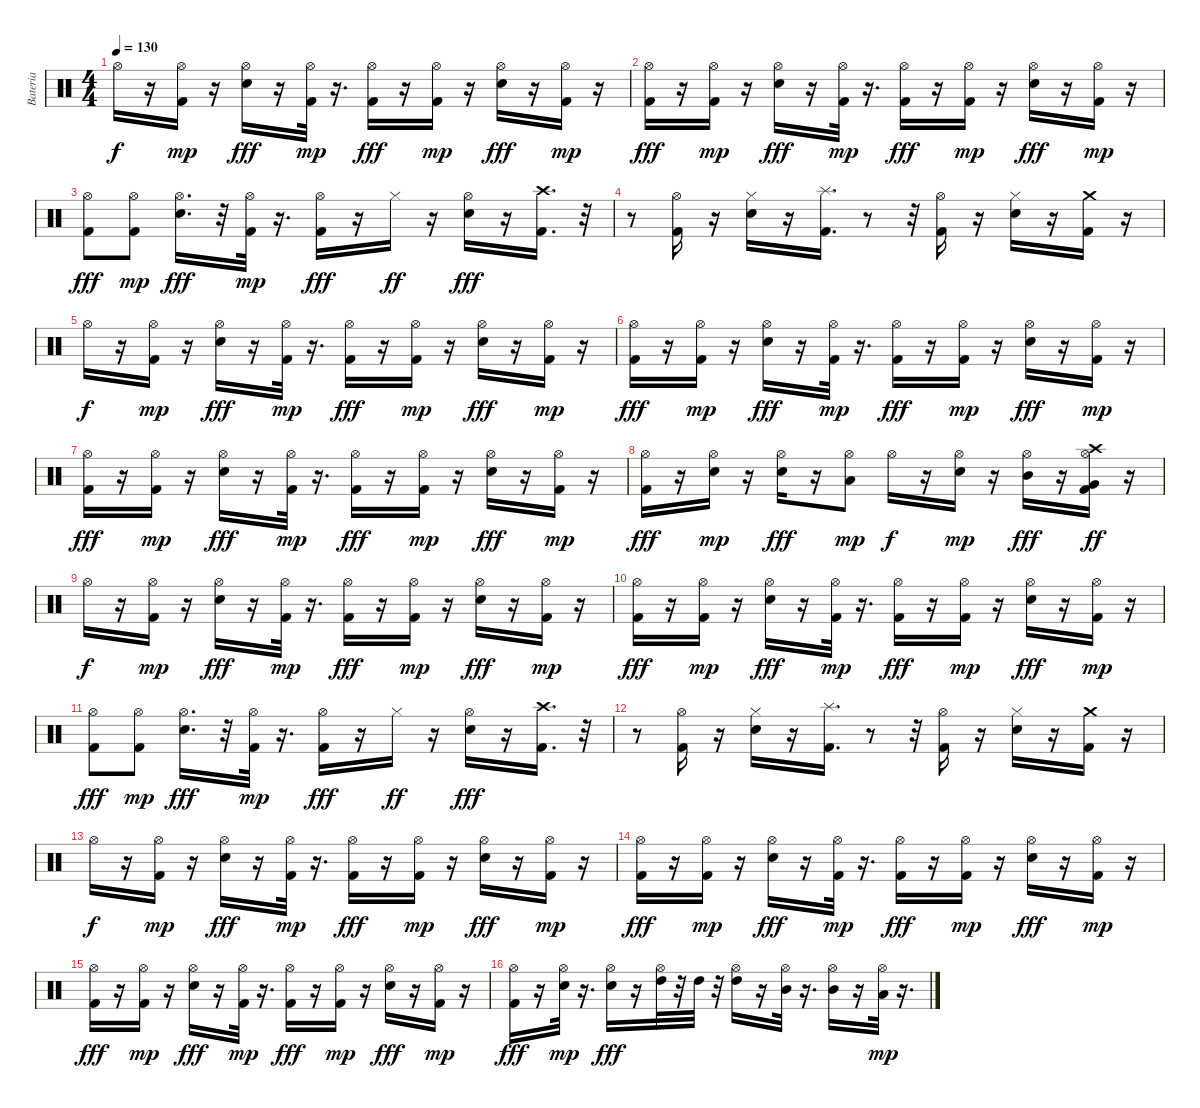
\track ("Bateria" "Bateria") {instrument percussion}
\staff {score}
\articulation defaults
\ts (4 4)
\tempo 130
\clef neutral
\ks c "Hi-Hat (open)".16{dy f}
r.16 ("Kick (hit) 2" "Hi-Hat (open)").16{dy mp} r.16 ("Electric Snare (hit)" "Hi-Hat (open)").16{dy fff} r.16 ("Kick (hit) 2" "Hi-Hat (open)").32{dy mp} r.16{d} ("Kick (hit) 2" "Hi-Hat (open)").16{dy fff} r.16 ("Kick (hit) 2" "Hi-Hat (open)").16{dy mp} r.16 ("Electric Snare (hit)" "Hi-Hat (open)").16{dy fff} r.16 ("Kick (hit) 2" "Hi-Hat (open)").16{dy mp} r.16 |
("Kick (hit) 2" "Hi-Hat (open)").16{dy fff} r.16 ("Kick (hit) 2" "Hi-Hat (open)").16{dy mp} r.16 ("Electric Snare (hit)" "Hi-Hat (open)").16{dy fff} r.16 ("Kick (hit) 2" "Hi-Hat (open)").32{dy mp} r.16{d} ("Kick (hit) 2" "Hi-Hat (open)").16{dy fff} r.16 ("Kick (hit) 2" "Hi-Hat (open)").16{dy mp} r.16 ("Electric Snare (hit)" "Hi-Hat (open)").16{dy fff} r.16 ("Kick (hit) 2" "Hi-Hat (open)").16{dy mp} r.16 |
("Kick (hit) 2" "Hi-Hat (open)").8{dy fff} ("Kick (hit) 2" "Hi-Hat (open)").8{dy mp} ("Electric Snare (hit)" "Hi-Hat (open)").16{d dy fff} r.32 ("Kick (hit) 2" "Hi-Hat (open)").32{dy mp} r.16{d} ("Kick (hit) 2" "Hi-Hat (open)").16{dy fff} r.16 "Hi-Hat (closed)".16{dy ff} r.16 ("Electric Snare (hit)" "Hi-Hat (open)").16{dy fff} r.16 ("Kick (hit) 2" "Crash high (hit)").16{d} r.32 |
r.8 ("Kick (hit) 2" "Hi-Hat (open)").16 r.16 ("Electric Snare (hit)" "Hi-Hat (closed)").16 r.16 ("Kick (hit) 2" "Splash (hit)").16{d} r.8 r.32 ("Kick (hit) 2" "Hi-Hat (open)").16 r.16 ("Electric Snare (hit)" "Hi-Hat (closed)").16 r.16 ("Kick (hit) 2" "Crash medium (hit)").16 r.16 |
"Hi-Hat (open)".16{dy f} r.16 ("Kick (hit) 2" "Hi-Hat (open)").16{dy mp} r.16 ("Electric Snare (hit)" "Hi-Hat (open)").16{dy fff} r.16 ("Kick (hit) 2" "Hi-Hat (open)").32{dy mp} r.16{d} ("Kick (hit) 2" "Hi-Hat (open)").16{dy fff} r.16 ("Kick (hit) 2" "Hi-Hat (open)").16{dy mp} r.16 ("Electric Snare (hit)" "Hi-Hat (open)").16{dy fff} r.16 ("Kick (hit) 2" "Hi-Hat (open)").16{dy mp} r.16 |
("Kick (hit) 2" "Hi-Hat (open)").16{dy fff} r.16 ("Kick (hit) 2" "Hi-Hat (open)").16{dy mp} r.16 ("Electric Snare (hit)" "Hi-Hat (open)").16{dy fff} r.16 ("Kick (hit) 2" "Hi-Hat (open)").32{dy mp} r.16{d} ("Kick (hit) 2" "Hi-Hat (open)").16{dy fff} r.16 ("Kick (hit) 2" "Hi-Hat (open)").16{dy mp} r.16 ("Electric Snare (hit)" "Hi-Hat (open)").16{dy fff} r.16 ("Kick (hit) 2" "Hi-Hat (open)").16{dy mp} r.16 |
("Kick (hit) 2" "Hi-Hat (open)").16{dy fff} r.16 ("Kick (hit) 2" "Hi-Hat (open)").16{dy mp} r.16 ("Electric Snare (hit)" "Hi-Hat (open)").16{dy fff} r.16 ("Kick (hit) 2" "Hi-Hat (open)").32{dy mp} r.16{d} ("Kick (hit) 2" "Hi-Hat (open)").16{dy fff} r.16 ("Kick (hit) 2" "Hi-Hat (open)").16{dy mp} r.16 ("Electric Snare (hit)" "Hi-Hat (open)").16{dy fff} r.16 ("Kick (hit) 2" "Hi-Hat (open)").16{dy mp} r.16 |
("Kick (hit) 2" "Hi-Hat (open)").16{dy fff} r.16 ("Electric Snare (hit)" "Hi-Hat (open)").16{dy mp} r.16 ("Electric Snare (hit)" "Hi-Hat (open)").16{dy fff} r.16 ("Low Tom (hit)" "Hi-Hat (open)").8{dy mp} "Hi-Hat (open)".16{dy f} r.16 ("Electric Snare (hit)" "Hi-Hat (open)").16{dy mp} r.16 ("Hi-Hat (open)" "Mid Tom (hit)").16{dy fff} r.16 ("Kick (hit) 2" "Very Low Tom (hit)" "Hi-Hat (open)" "Crash high (hit)").16{dy ff} r.16 |
"Hi-Hat (open)".16{dy f} r.16 ("Kick (hit) 2" "Hi-Hat (open)").16{dy mp} r.16 ("Electric Snare (hit)" "Hi-Hat (open)").16{dy fff} r.16 ("Kick (hit) 2" "Hi-Hat (open)").32{dy mp} r.16{d} ("Kick (hit) 2" "Hi-Hat (open)").16{dy fff} r.16 ("Kick (hit) 2" "Hi-Hat (open)").16{dy mp} r.16 ("Electric Snare (hit)" "Hi-Hat (open)").16{dy fff} r.16 ("Kick (hit) 2" "Hi-Hat (open)").16{dy mp} r.16 |
("Kick (hit) 2" "Hi-Hat (open)").16{dy fff} r.16 ("Kick (hit) 2" "Hi-Hat (open)").16{dy mp} r.16 ("Electric Snare (hit)" "Hi-Hat (open)").16{dy fff} r.16 ("Kick (hit) 2" "Hi-Hat (open)").32{dy mp} r.16{d} ("Kick (hit) 2" "Hi-Hat (open)").16{dy fff} r.16 ("Kick (hit) 2" "Hi-Hat (open)").16{dy mp} r.16 ("Electric Snare (hit)" "Hi-Hat (open)").16{dy fff} r.16 ("Kick (hit) 2" "Hi-Hat (open)").16{dy mp} r.16 |
("Kick (hit) 2" "Hi-Hat (open)").8{dy fff} ("Kick (hit) 2" "Hi-Hat (open)").8{dy mp} ("Electric Snare (hit)" "Hi-Hat (open)").16{d dy fff} r.32 ("Kick (hit) 2" "Hi-Hat (open)").32{dy mp} r.16{d} ("Kick (hit) 2" "Hi-Hat (open)").16{dy fff} r.16 "Hi-Hat (closed)".16{dy ff} r.16 ("Electric Snare (hit)" "Hi-Hat (open)").16{dy fff} r.16 ("Kick (hit) 2" "Crash high (hit)").16{d} r.32 |
r.8 ("Kick (hit) 2" "Hi-Hat (open)").16 r.16 ("Electric Snare (hit)" "Hi-Hat (closed)").16 r.16 ("Kick (hit) 2" "Splash (hit)").16{d} r.8 r.32 ("Kick (hit) 2" "Hi-Hat (open)").16 r.16 ("Electric Snare (hit)" "Hi-Hat (closed)").16 r.16 ("Kick (hit) 2" "Crash medium (hit)").16 r.16 |
"Hi-Hat (open)".16{dy f} r.16 ("Kick (hit) 2" "Hi-Hat (open)").16{dy mp} r.16 ("Electric Snare (hit)" "Hi-Hat (open)").16{dy fff} r.16 ("Kick (hit) 2" "Hi-Hat (open)").32{dy mp} r.16{d} ("Kick (hit) 2" "Hi-Hat (open)").16{dy fff} r.16 ("Kick (hit) 2" "Hi-Hat (open)").16{dy mp} r.16 ("Electric Snare (hit)" "Hi-Hat (open)").16{dy fff} r.16 ("Kick (hit) 2" "Hi-Hat (open)").16{dy mp} r.16 |
("Kick (hit) 2" "Hi-Hat (open)").16{dy fff} r.16 ("Kick (hit) 2" "Hi-Hat (open)").16{dy mp} r.16 ("Electric Snare (hit)" "Hi-Hat (open)").16{dy fff} r.16 ("Kick (hit) 2" "Hi-Hat (open)").32{dy mp} r.16{d} ("Kick (hit) 2" "Hi-Hat (open)").16{dy fff} r.16 ("Kick (hit) 2" "Hi-Hat (open)").16{dy mp} r.16 ("Electric Snare (hit)" "Hi-Hat (open)").16{dy fff} r.16 ("Kick (hit) 2" "Hi-Hat (open)").16{dy mp} r.16 |
("Kick (hit) 2" "Hi-Hat (open)").16{dy fff} r.16 ("Kick (hit) 2" "Hi-Hat (open)").16{dy mp} r.16 ("Electric Snare (hit)" "Hi-Hat (open)").16{dy fff} r.16 ("Kick (hit) 2" "Hi-Hat (open)").32{dy mp} r.16{d} ("Kick (hit) 2" "Hi-Hat (open)").16{dy fff} r.16 ("Kick (hit) 2" "Hi-Hat (open)").16{dy mp} r.16 ("Electric Snare (hit)" "Hi-Hat (open)").16{dy fff} r.16 ("Kick (hit) 2" "Hi-Hat (open)").16{dy mp} r.16 |
("Kick (hit) 2" "Hi-Hat (open)").16{dy fff} r.16 ("Electric Snare (hit)" "Hi-Hat (open)").32{dy mp} r.16{d} ("Electric Snare (hit)" "Hi-Hat (open)").16{dy fff} r.16 ("Hi-Hat (open)" "High Tom (hit)").32 r.32 "High Tom (hit)".32 r.32 ("Hi-Hat (open)" "High Tom (hit)").16 r.16 ("Hi-Hat (open)" "Mid Tom (hit)").32 r.16{d} ("Hi-Hat (open)" "Mid Tom (hit)").16 r.16 ("Low Tom (hit)" "Hi-Hat (open)").32{dy mp} r.16{d}
